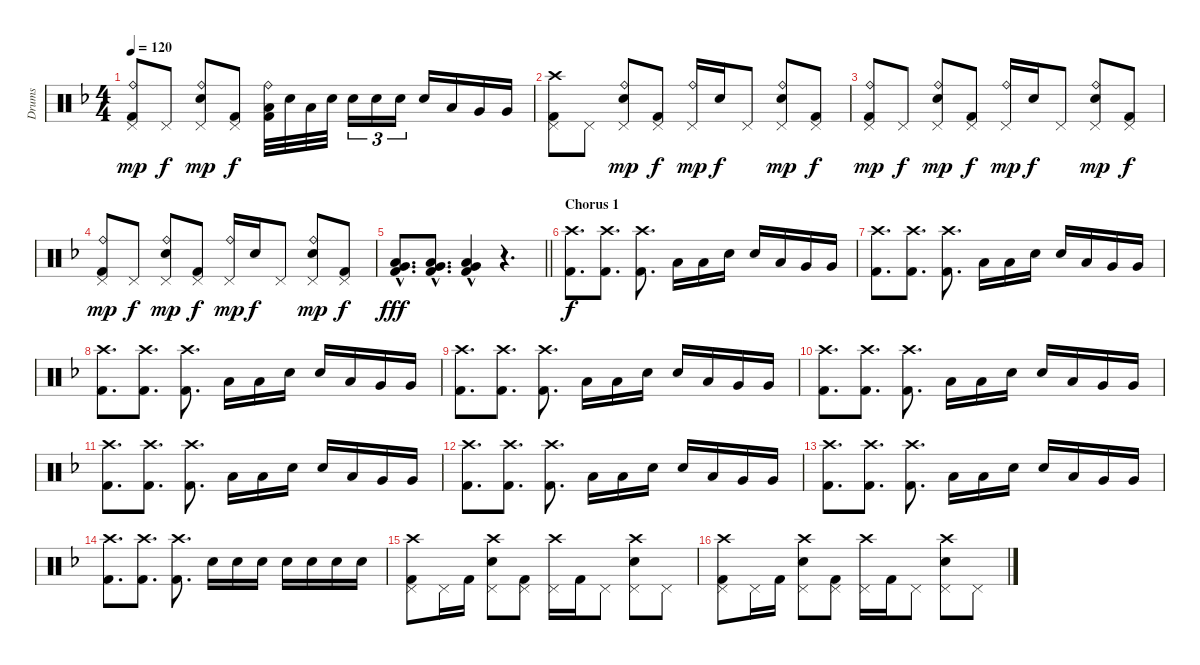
\track ("Drums" "Drums") {instrument percussion}
\staff {score}
\articulation defaults
\ts (4 4)
\tempo 120
\clef neutral
\ks f
("Ride (bell)" "Kick (hit) 2" "Pedal Hi-Hat (hit)").8{dy mp} "Pedal Hi-Hat (hit)".8{dy f} ("Ride (bell)" "Snare (hit) 2" "Pedal Hi-Hat (hit)").8{dy mp} ("Kick (hit) 2" "Pedal Hi-Hat (hit)").8{dy f} ("Ride (bell)" "Low Tom (hit)" "Kick (hit) 2").32 "Snare (hit) 2".32 "Low Tom (hit)".32 "Snare (hit) 2".32{beam splitsecondary} "Snare (hit) 2".16{tu (3 2)} "Snare (hit) 2".16{tu (3 2)} "Snare (hit) 2".16{tu (3 2)} "Snare (hit) 2".16 "Low Tom (hit)".16 "Very Low Tom (hit)".16 "Very Low Tom (hit)".16 |
("Crash high (hit)" "Kick (hit) 2" "Pedal Hi-Hat (hit)").8 "Pedal Hi-Hat (hit)".8 ("Ride (bell)" "Snare (hit) 2" "Pedal Hi-Hat (hit)").8{dy mp} ("Kick (hit) 2" "Pedal Hi-Hat (hit)").8{dy f} ("Ride (bell)" "Pedal Hi-Hat (hit)").16{dy mp} "Snare (hit) 2".16{dy f} "Pedal Hi-Hat (hit)".8 ("Ride (bell)" "Snare (hit) 2" "Pedal Hi-Hat (hit)").8{dy mp} ("Kick (hit) 2" "Pedal Hi-Hat (hit)").8{dy f} |
("Ride (bell)" "Kick (hit) 2" "Pedal Hi-Hat (hit)").8{dy mp} "Pedal Hi-Hat (hit)".8{dy f} ("Ride (bell)" "Snare (hit) 2" "Pedal Hi-Hat (hit)").8{dy mp} ("Kick (hit) 2" "Pedal Hi-Hat (hit)").8{dy f} ("Ride (bell)" "Pedal Hi-Hat (hit)").16{dy mp} "Snare (hit) 2".16{dy f} "Pedal Hi-Hat (hit)".8 ("Ride (bell)" "Snare (hit) 2" "Pedal Hi-Hat (hit)").8{dy mp} ("Kick (hit) 2" "Pedal Hi-Hat (hit)").8{dy f} |
("Ride (bell)" "Kick (hit) 2" "Pedal Hi-Hat (hit)").8{dy mp} "Pedal Hi-Hat (hit)".8{dy f} ("Ride (bell)" "Snare (hit) 2" "Pedal Hi-Hat (hit)").8{dy mp} ("Kick (hit) 2" "Pedal Hi-Hat (hit)").8{dy f} ("Ride (bell)" "Pedal Hi-Hat (hit)").16{dy mp} "Snare (hit) 2".16{dy f} "Pedal Hi-Hat (hit)".8 ("Ride (bell)" "Snare (hit) 2" "Pedal Hi-Hat (hit)").8{dy mp} ("Kick (hit) 2" "Pedal Hi-Hat (hit)").8{dy f} |
\barLineRight lightlight
("Low Tom (hit)"{hac} "Very Low Tom (hit)"{hac} "Kick (hit) 2"{hac}).8{d dy fff} ("Low Tom (hit)"{hac} "Very Low Tom (hit)"{hac} "Kick (hit) 2"{hac}).8{d} ("Low Tom (hit)"{hac} "Very Low Tom (hit)"{hac} "Kick (hit) 2"{hac}).4 r.4{d} |
\section ("" "Chorus 1")
("Crash high (hit)" "Kick (hit) 2").8{d dy f} ("Crash high (hit)" "Kick (hit) 2").8{d} ("Crash high (hit)" "Kick (hit) 2").8{d} "Low Tom (hit)".16 "Low Tom (hit)".16 "Snare (hit) 2".16 "Snare (hit) 2".16 "Low Tom (hit)".16 "Very Low Tom (hit)".16 "Very Low Tom (hit)".16 |
("Crash high (hit)" "Kick (hit) 2").8{d} ("Crash high (hit)" "Kick (hit) 2").8{d} ("Crash high (hit)" "Kick (hit) 2").8{d} "Low Tom (hit)".16 "Low Tom (hit)".16 "Snare (hit) 2".16 "Snare (hit) 2".16 "Low Tom (hit)".16 "Very Low Tom (hit)".16 "Very Low Tom (hit)".16 |
("Crash high (hit)" "Kick (hit) 2").8{d} ("Crash high (hit)" "Kick (hit) 2").8{d} ("Crash high (hit)" "Kick (hit) 2").8{d} "Low Tom (hit)".16 "Low Tom (hit)".16 "Snare (hit) 2".16 "Snare (hit) 2".16 "Low Tom (hit)".16 "Very Low Tom (hit)".16 "Very Low Tom (hit)".16 |
("Crash high (hit)" "Kick (hit) 2").8{d} ("Crash high (hit)" "Kick (hit) 2").8{d} ("Crash high (hit)" "Kick (hit) 2").8{d} "Low Tom (hit)".16 "Low Tom (hit)".16 "Snare (hit) 2".16 "Snare (hit) 2".16 "Low Tom (hit)".16 "Very Low Tom (hit)".16 "Very Low Tom (hit)".16 |
("Crash high (hit)" "Kick (hit) 2").8{d} ("Crash high (hit)" "Kick (hit) 2").8{d} ("Crash high (hit)" "Kick (hit) 2").8{d} "Low Tom (hit)".16 "Low Tom (hit)".16 "Snare (hit) 2".16 "Snare (hit) 2".16 "Low Tom (hit)".16 "Very Low Tom (hit)".16 "Very Low Tom (hit)".16 |
("Crash high (hit)" "Kick (hit) 2").8{d} ("Crash high (hit)" "Kick (hit) 2").8{d} ("Crash high (hit)" "Kick (hit) 2").8{d} "Low Tom (hit)".16 "Low Tom (hit)".16 "Snare (hit) 2".16 "Snare (hit) 2".16 "Low Tom (hit)".16 "Very Low Tom (hit)".16 "Very Low Tom (hit)".16 |
("Crash high (hit)" "Kick (hit) 2").8{d} ("Crash high (hit)" "Kick (hit) 2").8{d} ("Crash high (hit)" "Kick (hit) 2").8{d} "Low Tom (hit)".16 "Low Tom (hit)".16 "Snare (hit) 2".16 "Snare (hit) 2".16 "Low Tom (hit)".16 "Very Low Tom (hit)".16 "Very Low Tom (hit)".16 |
("Crash high (hit)" "Kick (hit) 2").8{d} ("Crash high (hit)" "Kick (hit) 2").8{d} ("Crash high (hit)" "Kick (hit) 2").8{d} "Low Tom (hit)".16 "Low Tom (hit)".16 "Snare (hit) 2".16 "Snare (hit) 2".16 "Low Tom (hit)".16 "Very Low Tom (hit)".16 "Very Low Tom (hit)".16 |
("Crash high (hit)" "Kick (hit) 2").8{d} ("Crash high (hit)" "Kick (hit) 2").8{d} ("Crash high (hit)" "Kick (hit) 2").8{d} "Snare (hit) 2".16 "Snare (hit) 2".16 "Snare (hit) 2".16 "Snare (hit) 2".16 "Snare (hit) 2".16 "Snare (hit) 2".16 "Snare (hit) 2".16 |
("Crash high (hit)" "Kick (hit) 2" "Pedal Hi-Hat (hit)").8 "Pedal Hi-Hat (hit)".16 "Kick (hit) 2".16 ("Crash high (hit)" "Snare (hit) 2" "Pedal Hi-Hat (hit)").8 ("Kick (hit) 2" "Pedal Hi-Hat (hit)").8 ("Crash high (hit)" "Pedal Hi-Hat (hit)").16 "Kick (hit) 2".16 "Pedal Hi-Hat (hit)".8 ("Crash high (hit)" "Snare (hit) 2" "Pedal Hi-Hat (hit)").8 "Pedal Hi-Hat (hit)".8 |
("Crash high (hit)" "Kick (hit) 2" "Pedal Hi-Hat (hit)").8 "Pedal Hi-Hat (hit)".16 "Kick (hit) 2".16 ("Crash high (hit)" "Snare (hit) 2" "Pedal Hi-Hat (hit)").8 ("Kick (hit) 2" "Pedal Hi-Hat (hit)").8 ("Crash high (hit)" "Pedal Hi-Hat (hit)").16 "Kick (hit) 2".16 "Pedal Hi-Hat (hit)".8 ("Crash high (hit)" "Snare (hit) 2" "Pedal Hi-Hat (hit)").8 "Pedal Hi-Hat (hit)".8
